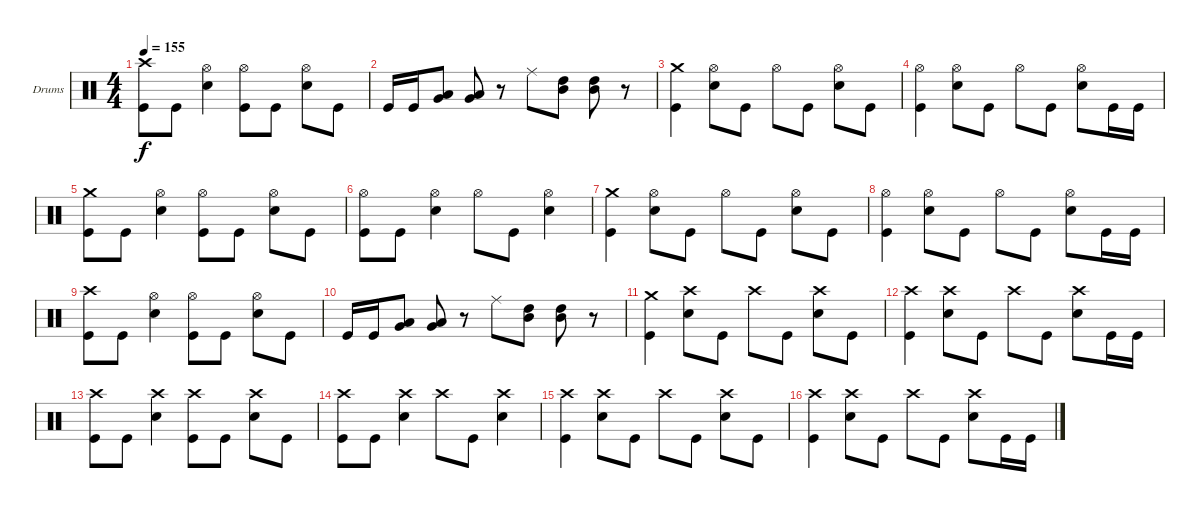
\defaultSystemsLayout 4
\bracketExtendMode groupsimilarinstruments
\firstSystemTrackNameOrientation horizontal
\otherSystemsTrackNameOrientation horizontal
\track ("Drumkit" "Drums") {instrument percussion}
\staff {score}
\articulation defaults
\ts (4 4)
\tempo 155
\clef neutral
\scale
0.333333
\ks c
("Crash high (hit)" "Kick (hit)").8{dy f} "Kick (hit)".8 ("Hi-Hat (open)" "Snare (hit) 2").4 ("Hi-Hat (open)" "Kick (hit)").8 "Kick (hit)".8 ("Hi-Hat (open)" "Snare (hit) 2").8 "Kick (hit)".8 |
\scale
0.333333 "Kick (hit)".16 "Kick (hit)".16 ("Very Low Tom (hit)" "Low Tom (hit)").8 ("Very Low Tom (hit)" "Low Tom (hit)").8 r.8 "Ride (middle)".8 ("High Tom (hit)" "Mid Tom (hit)").8 ("High Tom (hit)" "Mid Tom (hit)").8 r.8 |
\scale
0.333333 ("Crash medium (hit)" "Kick (hit)").4 ("Hi-Hat (open)" "Snare (hit) 2").8 "Kick (hit)".8 "Hi-Hat (open)".8 "Kick (hit)".8 ("Hi-Hat (open)" "Snare (hit) 2").8 "Kick (hit)".8 |
\scale
0.333333 ("Hi-Hat (open)" "Kick (hit)").4 ("Hi-Hat (open)" "Snare (hit) 2").8 "Kick (hit)".8 "Hi-Hat (open)".8 "Kick (hit)".8 ("Hi-Hat (open)" "Snare (hit) 2").8 "Kick (hit)".16 "Kick (hit)".16 |
\scale
0.333333 ("Crash medium (hit)" "Kick (hit)").8 "Kick (hit)".8 ("Hi-Hat (open)" "Snare (hit) 2").4 ("Hi-Hat (open)" "Kick (hit)").8 "Kick (hit)".8 ("Hi-Hat (open)" "Snare (hit) 2").8 "Kick (hit)".8 |
\scale
0.333333 ("Hi-Hat (open)" "Kick (hit)").8 "Kick (hit)".8 ("Hi-Hat (open)" "Snare (hit) 2").4 "Hi-Hat (open)".8 "Kick (hit)".8 ("Hi-Hat (open)" "Snare (hit) 2").4 |
\scale
0.333333 ("Crash medium (hit)" "Kick (hit)").4 ("Hi-Hat (open)" "Snare (hit) 2").8 "Kick (hit)".8 "Hi-Hat (open)".8 "Kick (hit)".8 ("Hi-Hat (open)" "Snare (hit) 2").8 "Kick (hit)".8 |
\scale
0.333333 ("Hi-Hat (open)" "Kick (hit)").4 ("Hi-Hat (open)" "Snare (hit) 2").8 "Kick (hit)".8 "Hi-Hat (open)".8 "Kick (hit)".8 ("Hi-Hat (open)" "Snare (hit) 2").8 "Kick (hit)".16 "Kick (hit)".16 |
\scale
0.333333 ("Crash high (hit)" "Kick (hit)").8 "Kick (hit)".8 ("Hi-Hat (open)" "Snare (hit) 2").4 ("Hi-Hat (open)" "Kick (hit)").8 "Kick (hit)".8 ("Hi-Hat (open)" "Snare (hit) 2").8 "Kick (hit)".8 |
\scale
0.333333 "Kick (hit)".16 "Kick (hit)".16 ("Very Low Tom (hit)" "Low Tom (hit)").8 ("Very Low Tom (hit)" "Low Tom (hit)").8 r.8 "Ride (middle)".8 ("High Tom (hit)" "Mid Tom (hit)").8 ("High Tom (hit)" "Mid Tom (hit)").8 r.8 |
\scale
0.333333 ("Crash medium (hit)" "Kick (hit)").4 ("Crash high (hit)" "Snare (hit) 2").8 "Kick (hit)".8 "Crash high (hit)".8 "Kick (hit)".8 ("Crash high (hit)" "Snare (hit) 2").8 "Kick (hit)".8 |
\scale
0.333333 ("Crash high (hit)" "Kick (hit)").4 ("Crash high (hit)" "Snare (hit) 2").8 "Kick (hit)".8 "Crash high (hit)".8 "Kick (hit)".8 ("Crash high (hit)" "Snare (hit) 2").8 "Kick (hit)".16 "Kick (hit)".16 |
\scale
0.333333 ("Crash high (hit)" "Kick (hit)").8 "Kick (hit)".8 ("Crash high (hit)" "Snare (hit) 2").4 ("Crash high (hit)" "Kick (hit)").8 "Kick (hit)".8 ("Crash high (hit)" "Snare (hit) 2").8 "Kick (hit)".8 |
\scale
0.333333 ("Crash high (hit)" "Kick (hit)").8 "Kick (hit)".8 ("Crash high (hit)" "Snare (hit) 2").4 "Crash high (hit)".8 "Kick (hit)".8 ("Crash high (hit)" "Snare (hit) 2").4 |
\scale
0.333333 ("Crash high (hit)" "Kick (hit)").4 ("Crash high (hit)" "Snare (hit) 2").8 "Kick (hit)".8 "Crash high (hit)".8 "Kick (hit)".8 ("Crash high (hit)" "Snare (hit) 2").8 "Kick (hit)".8 |
\scale
0.333333 ("Crash high (hit)" "Kick (hit)").4 ("Crash high (hit)" "Snare (hit) 2").8 "Kick (hit)".8 "Crash high (hit)".8 "Kick (hit)".8 ("Crash high (hit)" "Snare (hit) 2").8 "Kick (hit)".16 "Kick (hit)".16
